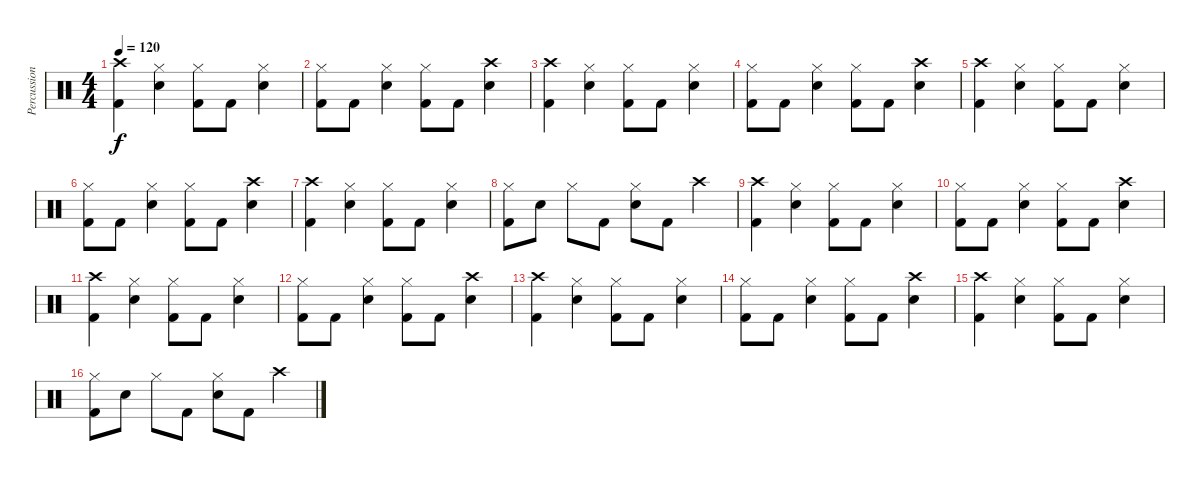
\track ("Percussion" "Percussion") {instrument percussion}
\staff {score}
\articulation defaults
\ts (4 4)
\tempo 120
\clef neutral
\ks c
("Crash high (hit)" "Kick (hit) 2").4{dy f} ("Hi-Hat (closed)" "Snare (hit) 2").4 ("Hi-Hat (closed)" "Kick (hit) 2").8 "Kick (hit) 2".8 ("Hi-Hat (closed)" "Snare (hit) 2").4 |
("Hi-Hat (closed)" "Kick (hit) 2").8 "Kick (hit) 2".8 ("Hi-Hat (closed)" "Snare (hit) 2").4 ("Hi-Hat (closed)" "Kick (hit) 2").8 "Kick (hit) 2".8 ("Crash high (hit)" "Snare (hit) 2").4 |
("Crash high (hit)" "Kick (hit) 2").4 ("Hi-Hat (closed)" "Snare (hit) 2").4 ("Hi-Hat (closed)" "Kick (hit) 2").8 "Kick (hit) 2".8 ("Hi-Hat (closed)" "Snare (hit) 2").4 |
("Hi-Hat (closed)" "Kick (hit) 2").8 "Kick (hit) 2".8 ("Hi-Hat (closed)" "Snare (hit) 2").4 ("Hi-Hat (closed)" "Kick (hit) 2").8 "Kick (hit) 2".8 ("Crash high (hit)" "Snare (hit) 2").4 |
("Crash high (hit)" "Kick (hit) 2").4 ("Hi-Hat (closed)" "Snare (hit) 2").4 ("Hi-Hat (closed)" "Kick (hit) 2").8 "Kick (hit) 2".8 ("Hi-Hat (closed)" "Snare (hit) 2").4 |
("Hi-Hat (closed)" "Kick (hit) 2").8 "Kick (hit) 2".8 ("Hi-Hat (closed)" "Snare (hit) 2").4 ("Hi-Hat (closed)" "Kick (hit) 2").8 "Kick (hit) 2".8 ("Crash high (hit)" "Snare (hit) 2").4 |
("Crash high (hit)" "Kick (hit) 2").4 ("Hi-Hat (closed)" "Snare (hit) 2").4 ("Hi-Hat (closed)" "Kick (hit) 2").8 "Kick (hit) 2".8 ("Hi-Hat (closed)" "Snare (hit) 2").4 |
("Hi-Hat (closed)" "Kick (hit) 2").8 "Snare (hit) 2".8 "Hi-Hat (closed)".8 "Kick (hit) 2".8 ("Hi-Hat (closed)" "Snare (hit) 2").8 "Kick (hit) 2".8 "Crash high (hit)".4 |
("Crash high (hit)" "Kick (hit) 2").4 ("Hi-Hat (closed)" "Snare (hit) 2").4 ("Hi-Hat (closed)" "Kick (hit) 2").8 "Kick (hit) 2".8 ("Hi-Hat (closed)" "Snare (hit) 2").4 |
("Hi-Hat (closed)" "Kick (hit) 2").8 "Kick (hit) 2".8 ("Hi-Hat (closed)" "Snare (hit) 2").4 ("Hi-Hat (closed)" "Kick (hit) 2").8 "Kick (hit) 2".8 ("Crash high (hit)" "Snare (hit) 2").4 |
("Crash high (hit)" "Kick (hit) 2").4 ("Hi-Hat (closed)" "Snare (hit) 2").4 ("Hi-Hat (closed)" "Kick (hit) 2").8 "Kick (hit) 2".8 ("Hi-Hat (closed)" "Snare (hit) 2").4 |
("Hi-Hat (closed)" "Kick (hit) 2").8 "Kick (hit) 2".8 ("Hi-Hat (closed)" "Snare (hit) 2").4 ("Hi-Hat (closed)" "Kick (hit) 2").8 "Kick (hit) 2".8 ("Crash high (hit)" "Snare (hit) 2").4 |
("Crash high (hit)" "Kick (hit) 2").4 ("Hi-Hat (closed)" "Snare (hit) 2").4 ("Hi-Hat (closed)" "Kick (hit) 2").8 "Kick (hit) 2".8 ("Hi-Hat (closed)" "Snare (hit) 2").4 |
("Hi-Hat (closed)" "Kick (hit) 2").8 "Kick (hit) 2".8 ("Hi-Hat (closed)" "Snare (hit) 2").4 ("Hi-Hat (closed)" "Kick (hit) 2").8 "Kick (hit) 2".8 ("Crash high (hit)" "Snare (hit) 2").4 |
("Crash high (hit)" "Kick (hit) 2").4 ("Hi-Hat (closed)" "Snare (hit) 2").4 ("Hi-Hat (closed)" "Kick (hit) 2").8 "Kick (hit) 2".8 ("Hi-Hat (closed)" "Snare (hit) 2").4 |
("Hi-Hat (closed)" "Kick (hit) 2").8 "Snare (hit) 2".8 "Hi-Hat (closed)".8 "Kick (hit) 2".8 ("Hi-Hat (closed)" "Snare (hit) 2").8 "Kick (hit) 2".8 "Crash high (hit)".4
